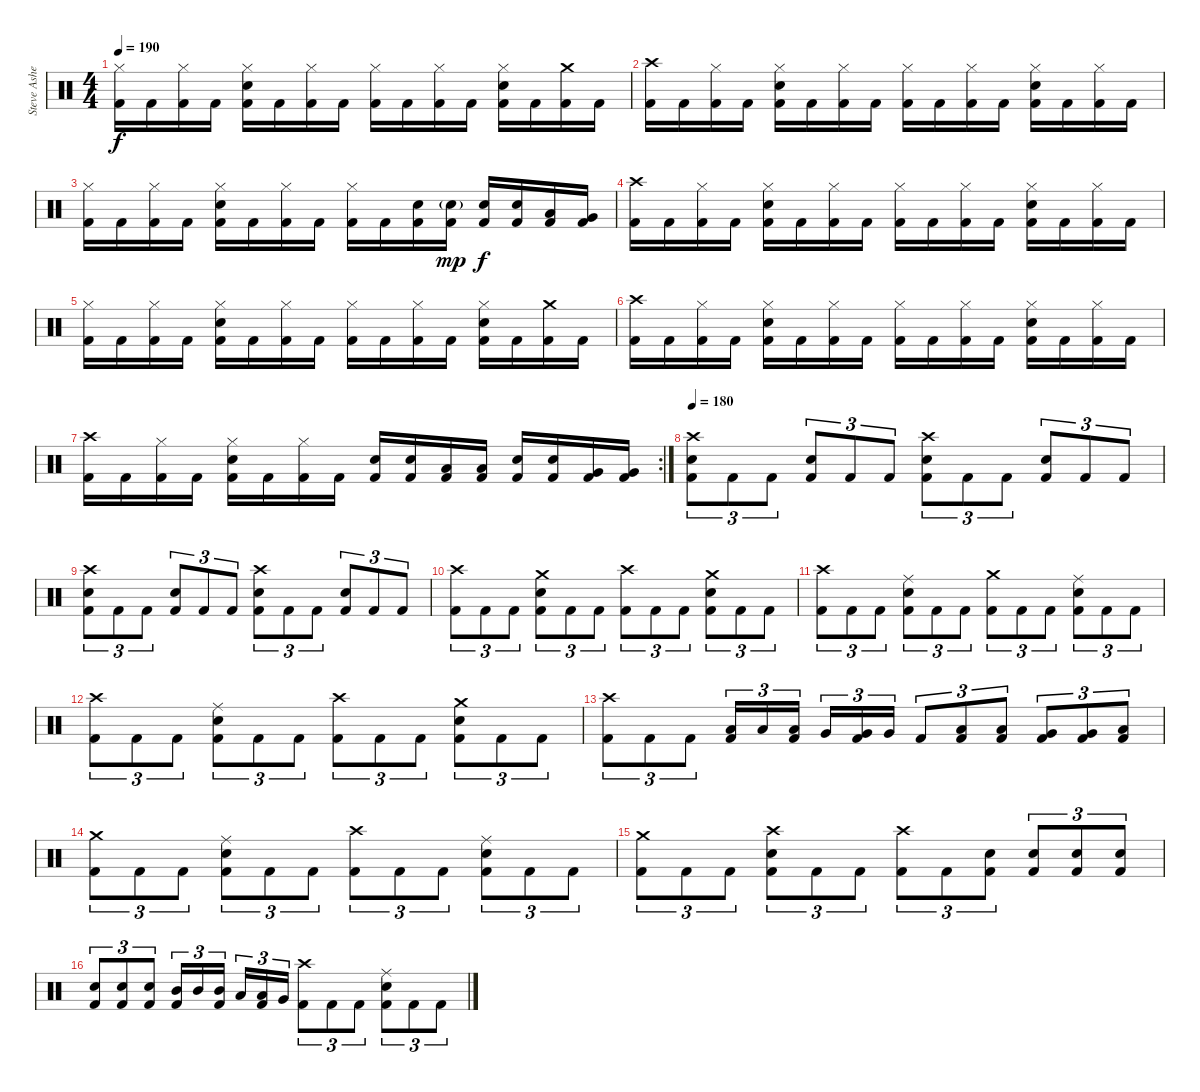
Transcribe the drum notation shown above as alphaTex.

\track ("Steve Asheim" "Steve Ashe") {instrument percussion}
\staff {score}
\articulation defaults
\ts (4 4)
\tempo 190
\clef neutral
\ks c
("Hi-Hat (closed)" "Kick (hit) 2").16{dy f} "Kick (hit) 2".16 ("Hi-Hat (closed)" "Kick (hit) 2").16 "Kick (hit) 2".16 ("Hi-Hat (closed)" "Snare (hit) 2" "Kick (hit) 2").16 "Kick (hit) 2".16 ("Hi-Hat (closed)" "Kick (hit) 2").16 "Kick (hit) 2".16 ("Hi-Hat (closed)" "Kick (hit) 2").16 "Kick (hit) 2".16 ("Hi-Hat (closed)" "Kick (hit) 2").16 "Kick (hit) 2".16 ("Hi-Hat (closed)" "Snare (hit) 2" "Kick (hit) 2").16 "Kick (hit) 2".16 ("Crash medium (hit)" "Kick (hit) 2").16 "Kick (hit) 2".16 |
("Crash high (hit)" "Kick (hit) 2").16 "Kick (hit) 2".16 ("Hi-Hat (closed)" "Kick (hit) 2").16 "Kick (hit) 2".16 ("Hi-Hat (closed)" "Snare (hit) 2" "Kick (hit) 2").16 "Kick (hit) 2".16 ("Hi-Hat (closed)" "Kick (hit) 2").16 "Kick (hit) 2".16 ("Hi-Hat (closed)" "Kick (hit) 2").16 "Kick (hit) 2".16 ("Hi-Hat (closed)" "Kick (hit) 2").16 "Kick (hit) 2".16 ("Hi-Hat (closed)" "Snare (hit) 2" "Kick (hit) 2").16 "Kick (hit) 2".16 ("Hi-Hat (closed)" "Kick (hit) 2").16 "Kick (hit) 2".16 |
("Hi-Hat (closed)" "Kick (hit) 2").16 "Kick (hit) 2".16 ("Hi-Hat (closed)" "Kick (hit) 2").16 "Kick (hit) 2".16 ("Hi-Hat (closed)" "Snare (hit) 2" "Kick (hit) 2").16 "Kick (hit) 2".16 ("Hi-Hat (closed)" "Kick (hit) 2").16 "Kick (hit) 2".16 ("Hi-Hat (closed)" "Kick (hit) 2").16 "Kick (hit) 2".16 ("Snare (hit) 2" "Kick (hit) 2").16 ("Snare (hit) 2"{g} "Kick (hit) 2").16{dy mp} ("Snare (hit) 2" "Kick (hit) 2").16{dy f} ("Snare (hit) 2" "Kick (hit) 2").16 ("Low Tom (hit)" "Kick (hit) 2").16 ("Very Low Tom (hit)" "Kick (hit) 2").16 |
("Crash high (hit)" "Kick (hit) 2").16 "Kick (hit) 2".16 ("Hi-Hat (closed)" "Kick (hit) 2").16 "Kick (hit) 2".16 ("Hi-Hat (closed)" "Snare (hit) 2" "Kick (hit) 2").16 "Kick (hit) 2".16 ("Hi-Hat (closed)" "Kick (hit) 2").16 "Kick (hit) 2".16 ("Hi-Hat (closed)" "Kick (hit) 2").16 "Kick (hit) 2".16 ("Hi-Hat (closed)" "Kick (hit) 2").16 "Kick (hit) 2".16 ("Hi-Hat (closed)" "Snare (hit) 2" "Kick (hit) 2").16 "Kick (hit) 2".16 ("Hi-Hat (closed)" "Kick (hit) 2").16 "Kick (hit) 2".16 |
("Hi-Hat (closed)" "Kick (hit) 2").16 "Kick (hit) 2".16 ("Hi-Hat (closed)" "Kick (hit) 2").16 "Kick (hit) 2".16 ("Hi-Hat (closed)" "Snare (hit) 2" "Kick (hit) 2").16 "Kick (hit) 2".16 ("Hi-Hat (closed)" "Kick (hit) 2").16 "Kick (hit) 2".16 ("Hi-Hat (closed)" "Kick (hit) 2").16 "Kick (hit) 2".16 ("Hi-Hat (closed)" "Kick (hit) 2").16 "Kick (hit) 2".16 ("Hi-Hat (closed)" "Snare (hit) 2" "Kick (hit) 2").16 "Kick (hit) 2".16 ("Crash medium (hit)" "Kick (hit) 2").16 "Kick (hit) 2".16 |
("Crash high (hit)" "Kick (hit) 2").16 "Kick (hit) 2".16 ("Hi-Hat (closed)" "Kick (hit) 2").16 "Kick (hit) 2".16 ("Hi-Hat (closed)" "Snare (hit) 2" "Kick (hit) 2").16 "Kick (hit) 2".16 ("Hi-Hat (closed)" "Kick (hit) 2").16 "Kick (hit) 2".16 ("Hi-Hat (closed)" "Kick (hit) 2").16 "Kick (hit) 2".16 ("Hi-Hat (closed)" "Kick (hit) 2").16 "Kick (hit) 2".16 ("Hi-Hat (closed)" "Snare (hit) 2" "Kick (hit) 2").16 "Kick (hit) 2".16 ("Hi-Hat (closed)" "Kick (hit) 2").16 "Kick (hit) 2".16 |
\rc 2
("Crash high (hit)" "Kick (hit) 2").16 "Kick (hit) 2".16 ("Hi-Hat (closed)" "Kick (hit) 2").16 "Kick (hit) 2".16 ("Hi-Hat (closed)" "Snare (hit) 2" "Kick (hit) 2").16 "Kick (hit) 2".16 ("Hi-Hat (closed)" "Kick (hit) 2").16 "Kick (hit) 2".16 ("Snare (hit) 2" "Kick (hit) 2").16 ("Snare (hit) 2" "Kick (hit) 2").16 ("Low Floor Tom (hit)" "Kick (hit) 2").16 ("Low Floor Tom (hit)" "Kick (hit) 2").16 ("Snare (hit) 2" "Kick (hit) 2").16 ("Snare (hit) 2" "Kick (hit) 2").16 ("Very Low Tom (hit)" "Kick (hit) 2").16 ("Very Low Tom (hit)" "Kick (hit) 2").16 |
\tempo 180
("Crash high (hit)" "Snare (hit) 2" "Kick (hit) 2").8{tu (3 2)} "Kick (hit) 2".8{tu (3 2)} "Kick (hit) 2".8{tu (3 2)} ("Snare (hit) 2" "Kick (hit) 2").8{tu (3 2)} "Kick (hit) 2".8{tu (3 2)} "Kick (hit) 2".8{tu (3 2)} ("Crash high (hit)" "Snare (hit) 2" "Kick (hit) 2").8{tu (3 2)} "Kick (hit) 2".8{tu (3 2)} "Kick (hit) 2".8{tu (3 2)} ("Snare (hit) 2" "Kick (hit) 2").8{tu (3 2)} "Kick (hit) 2".8{tu (3 2)} "Kick (hit) 2".8{tu (3 2)} |
("Crash high (hit)" "Snare (hit) 2" "Kick (hit) 2").8{tu (3 2)} "Kick (hit) 2".8{tu (3 2)} "Kick (hit) 2".8{tu (3 2)} ("Snare (hit) 2" "Kick (hit) 2").8{tu (3 2)} "Kick (hit) 2".8{tu (3 2)} "Kick (hit) 2".8{tu (3 2)} ("Crash high (hit)" "Snare (hit) 2" "Kick (hit) 2").8{tu (3 2)} "Kick (hit) 2".8{tu (3 2)} "Kick (hit) 2".8{tu (3 2)} ("Snare (hit) 2" "Kick (hit) 2").8{tu (3 2)} "Kick (hit) 2".8{tu (3 2)} "Kick (hit) 2".8{tu (3 2)} |
("Crash high (hit)" "Kick (hit) 2").8{tu (3 2)} "Kick (hit) 2".8{tu (3 2)} "Kick (hit) 2".8{tu (3 2)} ("Crash medium (hit)" "Snare (hit) 2" "Kick (hit) 2").8{tu (3 2)} "Kick (hit) 2".8{tu (3 2)} "Kick (hit) 2".8{tu (3 2)} ("Crash high (hit)" "Kick (hit) 2").8{tu (3 2)} "Kick (hit) 2".8{tu (3 2)} "Kick (hit) 2".8{tu (3 2)} ("Crash medium (hit)" "Snare (hit) 2" "Kick (hit) 2").8{tu (3 2)} "Kick (hit) 2".8{tu (3 2)} "Kick (hit) 2".8{tu (3 2)} |
("Crash high (hit)" "Kick (hit) 2").8{tu (3 2)} "Kick (hit) 2".8{tu (3 2)} "Kick (hit) 2".8{tu (3 2)} ("Ride (middle)" "Snare (hit) 2" "Kick (hit) 2").8{tu (3 2)} "Kick (hit) 2".8{tu (3 2)} "Kick (hit) 2".8{tu (3 2)} ("Crash medium (hit)" "Kick (hit) 2").8{tu (3 2)} "Kick (hit) 2".8{tu (3 2)} "Kick (hit) 2".8{tu (3 2)} ("Ride (middle)" "Snare (hit) 2" "Kick (hit) 2").8{tu (3 2)} "Kick (hit) 2".8{tu (3 2)} "Kick (hit) 2".8{tu (3 2)} |
("Crash high (hit)" "Kick (hit) 2").8{tu (3 2)} "Kick (hit) 2".8{tu (3 2)} "Kick (hit) 2".8{tu (3 2)} ("Ride (middle)" "Snare (hit) 2" "Kick (hit) 2").8{tu (3 2)} "Kick (hit) 2".8{tu (3 2)} "Kick (hit) 2".8{tu (3 2)} ("Crash high (hit)" "Kick (hit) 2").8{tu (3 2)} "Kick (hit) 2".8{tu (3 2)} "Kick (hit) 2".8{tu (3 2)} ("Crash medium (hit)" "Snare (hit) 2" "Kick (hit) 2").8{tu (3 2)} "Kick (hit) 2".8{tu (3 2)} "Kick (hit) 2".8{tu (3 2)} |
("Crash high (hit)" "Kick (hit) 2").8{tu (3 2)} "Kick (hit) 2".8{tu (3 2)} "Kick (hit) 2".8{tu (3 2)} ("Low Tom (hit)" "Kick (hit) 2").16{tu (3 2)} "Low Tom (hit)".16{tu (3 2)} ("Low Tom (hit)" "Kick (hit) 2").16{tu (3 2) beam splitsecondary} "Very Low Tom (hit)".16{tu (3 2)} ("Very Low Tom (hit)" "Kick (hit) 2").16{tu (3 2)} "Very Low Tom (hit)".16{tu (3 2)} "Kick (hit) 2".8{tu (3 2)} ("Low Tom (hit)" "Kick (hit) 2").8{tu (3 2)} ("Low Tom (hit)" "Kick (hit) 2").8{tu (3 2)} ("Very Low Tom (hit)" "Kick (hit) 2").8{tu (3 2)} ("Very Low Tom (hit)" "Kick (hit) 2").8{tu (3 2)} ("Low Floor Tom (hit)" "Kick (hit) 2").8{tu (3 2)} |
("Crash medium (hit)" "Kick (hit) 2").8{tu (3 2)} "Kick (hit) 2".8{tu (3 2)} "Kick (hit) 2".8{tu (3 2)} ("Ride (middle)" "Snare (hit) 2" "Kick (hit) 2").8{tu (3 2)} "Kick (hit) 2".8{tu (3 2)} "Kick (hit) 2".8{tu (3 2)} ("Crash high (hit)" "Kick (hit) 2").8{tu (3 2)} "Kick (hit) 2".8{tu (3 2)} "Kick (hit) 2".8{tu (3 2)} ("Ride (middle)" "Snare (hit) 2" "Kick (hit) 2").8{tu (3 2)} "Kick (hit) 2".8{tu (3 2)} "Kick (hit) 2".8{tu (3 2)} |
("Crash medium (hit)" "Kick (hit) 2").8{tu (3 2)} "Kick (hit) 2".8{tu (3 2)} "Kick (hit) 2".8{tu (3 2)} ("Crash high (hit)" "Snare (hit) 2" "Kick (hit) 2").8{tu (3 2)} "Kick (hit) 2".8{tu (3 2)} "Kick (hit) 2".8{tu (3 2)} ("Crash high (hit)" "Kick (hit) 2").8{tu (3 2)} "Kick (hit) 2".8{tu (3 2)} ("Snare (hit) 2" "Kick (hit) 2").8{tu (3 2)} ("Snare (hit) 2" "Kick (hit) 2").8{tu (3 2)} ("Snare (hit) 2" "Kick (hit) 2").8{tu (3 2)} ("Snare (hit) 2" "Kick (hit) 2").8{tu (3 2)} |
("Snare (hit) 2" "Kick (hit) 2").8{tu (3 2)} ("Snare (hit) 2" "Kick (hit) 2").8{tu (3 2)} ("Snare (hit) 2" "Kick (hit) 2").8{tu (3 2)} ("Mid Tom (hit)" "Kick (hit) 2").16{tu (3 2)} "Mid Tom (hit)".16{tu (3 2)} ("Mid Tom (hit)" "Kick (hit) 2").16{tu (3 2) beam splitsecondary} "Low Tom (hit)".16{tu (3 2)} ("Low Tom (hit)" "Kick (hit) 2").16{tu (3 2)} "Very Low Tom (hit)".16{tu (3 2)} ("Crash high (hit)" "Kick (hit) 2").8{tu (3 2)} "Kick (hit) 2".8{tu (3 2)} "Kick (hit) 2".8{tu (3 2)} ("Ride (middle)" "Snare (hit) 2" "Kick (hit) 2").8{tu (3 2)} "Kick (hit) 2".8{tu (3 2)} "Kick (hit) 2".8{tu (3 2)}
